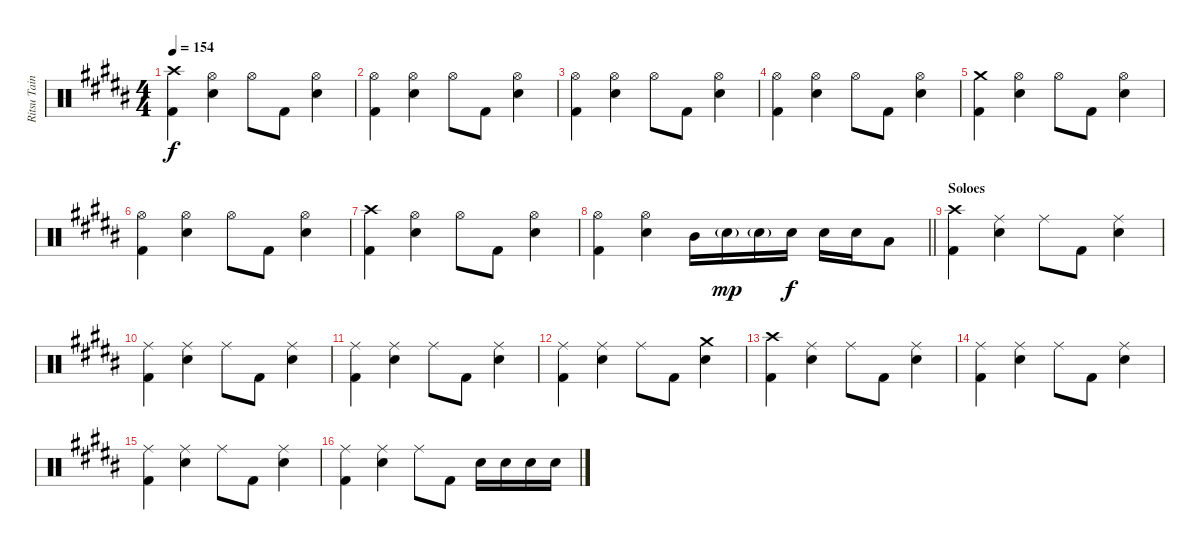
\track ("Ritsu Tainaka" "Ritsu Tain") {instrument percussion}
\staff {score}
\articulation defaults
\ts (4 4)
\tempo 154
\clef neutral
\ks b
("Crash high (hit)" "Kick (hit) 2").4{dy f} ("Hi-Hat (open)" "Snare (hit) 2").4 "Hi-Hat (open)".8 "Kick (hit) 2".8 ("Hi-Hat (open)" "Snare (hit) 2").4 |
("Hi-Hat (open)" "Kick (hit) 2").4 ("Hi-Hat (open)" "Snare (hit) 2").4 "Hi-Hat (open)".8 "Kick (hit) 2".8 ("Hi-Hat (open)" "Snare (hit) 2").4 |
("Hi-Hat (open)" "Kick (hit) 2").4 ("Hi-Hat (open)" "Snare (hit) 2").4 "Hi-Hat (open)".8 "Kick (hit) 2".8 ("Hi-Hat (open)" "Snare (hit) 2").4 |
("Hi-Hat (open)" "Kick (hit) 2").4 ("Hi-Hat (open)" "Snare (hit) 2").4 "Hi-Hat (open)".8 "Kick (hit) 2".8 ("Hi-Hat (open)" "Snare (hit) 2").4 |
("Crash medium (hit)" "Kick (hit) 2").4 ("Hi-Hat (open)" "Snare (hit) 2").4 "Hi-Hat (open)".8 "Kick (hit) 2".8 ("Hi-Hat (open)" "Snare (hit) 2").4 |
("Hi-Hat (open)" "Kick (hit) 2").4 ("Hi-Hat (open)" "Snare (hit) 2").4 "Hi-Hat (open)".8 "Kick (hit) 2".8 ("Hi-Hat (open)" "Snare (hit) 2").4 |
("Crash high (hit)" "Kick (hit) 2").4 ("Hi-Hat (open)" "Snare (hit) 2").4 "Hi-Hat (open)".8 "Kick (hit) 2".8 ("Hi-Hat (open)" "Snare (hit) 2").4 |
\barLineRight lightlight
("Hi-Hat (open)" "Kick (hit) 2").4 ("Hi-Hat (open)" "Snare (hit) 2").4 "Mid Tom (hit)".16 "Snare (hit) 2"{g}.16{dy mp} "Snare (hit) 2"{g}.16 "Snare (hit) 2".16{dy f} "Snare (hit) 2".16 "Snare (hit) 2".16 "Low Tom (hit)".8 |
\section ("" "Soloes")
("Crash high (hit)" "Kick (hit) 2").4 ("Ride (middle)" "Snare (hit) 2").4 "Ride (middle)".8 "Kick (hit) 2".8 ("Ride (middle)" "Snare (hit) 2").4 |
("Ride (middle)" "Kick (hit) 2").4 ("Ride (middle)" "Snare (hit) 2").4 "Ride (middle)".8 "Kick (hit) 2".8 ("Ride (middle)" "Snare (hit) 2").4 |
("Ride (middle)" "Kick (hit) 2").4 ("Ride (middle)" "Snare (hit) 2").4 "Ride (middle)".8 "Kick (hit) 2".8 ("Ride (middle)" "Snare (hit) 2").4 |
("Ride (middle)" "Kick (hit) 2").4 ("Ride (middle)" "Snare (hit) 2").4 "Ride (middle)".8 "Kick (hit) 2".8 ("Crash medium (hit)" "Snare (hit) 2").4 |
("Crash high (hit)" "Kick (hit) 2").4 ("Ride (middle)" "Snare (hit) 2").4 "Ride (middle)".8 "Kick (hit) 2".8 ("Ride (middle)" "Snare (hit) 2").4 |
("Ride (middle)" "Kick (hit) 2").4 ("Ride (middle)" "Snare (hit) 2").4 "Ride (middle)".8 "Kick (hit) 2".8 ("Ride (middle)" "Snare (hit) 2").4 |
("Ride (middle)" "Kick (hit) 2").4 ("Ride (middle)" "Snare (hit) 2").4 "Ride (middle)".8 "Kick (hit) 2".8 ("Ride (middle)" "Snare (hit) 2").4 |
("Ride (middle)" "Kick (hit) 2").4 ("Ride (middle)" "Snare (hit) 2").4 "Ride (middle)".8 "Kick (hit) 2".8 "Snare (hit) 2".16 "Snare (hit) 2".16 "Snare (hit) 2".16 "Snare (hit) 2".16
